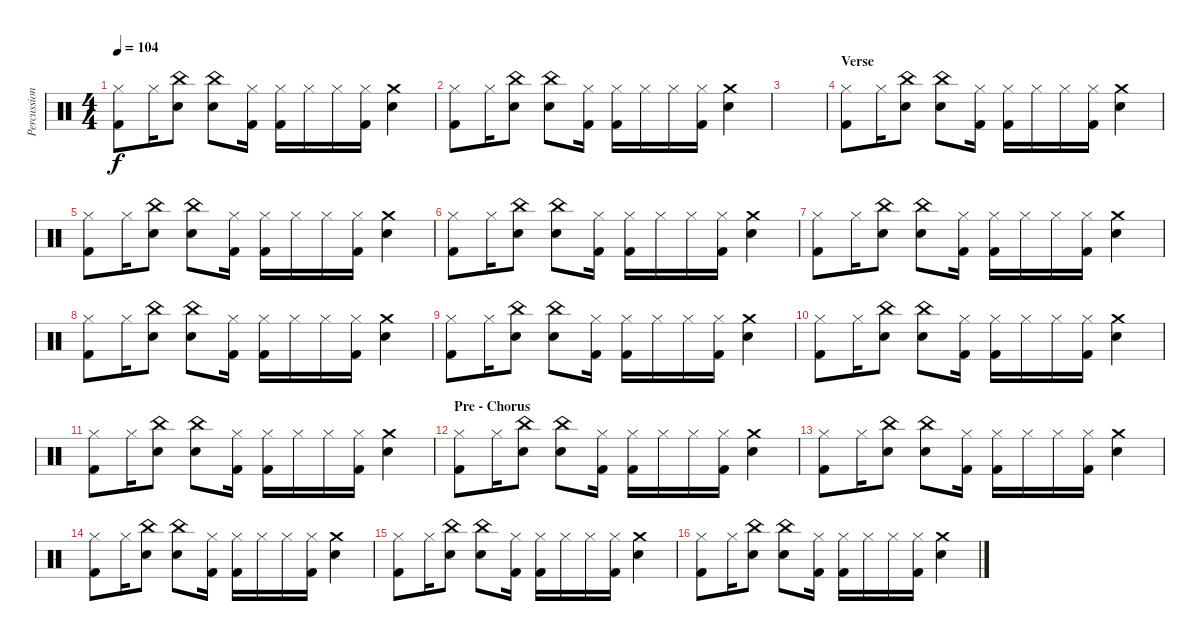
\track ("Percussion" "Percussion") {instrument percussion}
\staff {score}
\articulation defaults
\ts (4 4)
\tempo 104
\clef neutral
\ks c
("Hi-Hat (closed)" "Kick (hit) 2").8{dy f} "Hi-Hat (closed)".16 ("Snare (hit) 2" "China (hit)").8 ("Snare (hit) 2" "China (hit)").8 ("Hi-Hat (closed)" "Kick (hit) 2").16 ("Hi-Hat (closed)" "Kick (hit) 2").16 "Hi-Hat (closed)".16 "Hi-Hat (closed)".16 ("Hi-Hat (closed)" "Kick (hit) 2").16 ("Crash medium (hit)" "Snare (hit) 2").4 |
("Hi-Hat (closed)" "Kick (hit) 2").8 "Hi-Hat (closed)".16 ("Snare (hit) 2" "China (hit)").8 ("Snare (hit) 2" "China (hit)").8 ("Hi-Hat (closed)" "Kick (hit) 2").16 ("Hi-Hat (closed)" "Kick (hit) 2").16 "Hi-Hat (closed)".16 "Hi-Hat (closed)".16 ("Hi-Hat (closed)" "Kick (hit) 2").16 ("Crash medium (hit)" "Snare (hit) 2").4 |
|
\section ("" "Verse")
("Hi-Hat (closed)" "Kick (hit) 2").8 "Hi-Hat (closed)".16 ("Snare (hit) 2" "China (hit)").8 ("Snare (hit) 2" "China (hit)").8 ("Hi-Hat (closed)" "Kick (hit) 2").16 ("Hi-Hat (closed)" "Kick (hit) 2").16 "Hi-Hat (closed)".16 "Hi-Hat (closed)".16 ("Hi-Hat (closed)" "Kick (hit) 2").16 ("Crash medium (hit)" "Snare (hit) 2").4 |
("Hi-Hat (closed)" "Kick (hit) 2").8 "Hi-Hat (closed)".16 ("Snare (hit) 2" "China (hit)").8 ("Snare (hit) 2" "China (hit)").8 ("Hi-Hat (closed)" "Kick (hit) 2").16 ("Hi-Hat (closed)" "Kick (hit) 2").16 "Hi-Hat (closed)".16 "Hi-Hat (closed)".16 ("Hi-Hat (closed)" "Kick (hit) 2").16 ("Crash medium (hit)" "Snare (hit) 2").4 |
("Hi-Hat (closed)" "Kick (hit) 2").8 "Hi-Hat (closed)".16 ("Snare (hit) 2" "China (hit)").8 ("Snare (hit) 2" "China (hit)").8 ("Hi-Hat (closed)" "Kick (hit) 2").16 ("Hi-Hat (closed)" "Kick (hit) 2").16 "Hi-Hat (closed)".16 "Hi-Hat (closed)".16 ("Hi-Hat (closed)" "Kick (hit) 2").16 ("Crash medium (hit)" "Snare (hit) 2").4 |
("Hi-Hat (closed)" "Kick (hit) 2").8 "Hi-Hat (closed)".16 ("Snare (hit) 2" "China (hit)").8 ("Snare (hit) 2" "China (hit)").8 ("Hi-Hat (closed)" "Kick (hit) 2").16 ("Hi-Hat (closed)" "Kick (hit) 2").16 "Hi-Hat (closed)".16 "Hi-Hat (closed)".16 ("Hi-Hat (closed)" "Kick (hit) 2").16 ("Crash medium (hit)" "Snare (hit) 2").4 |
("Hi-Hat (closed)" "Kick (hit) 2").8 "Hi-Hat (closed)".16 ("Snare (hit) 2" "China (hit)").8 ("Snare (hit) 2" "China (hit)").8 ("Hi-Hat (closed)" "Kick (hit) 2").16 ("Hi-Hat (closed)" "Kick (hit) 2").16 "Hi-Hat (closed)".16 "Hi-Hat (closed)".16 ("Hi-Hat (closed)" "Kick (hit) 2").16 ("Crash medium (hit)" "Snare (hit) 2").4 |
("Hi-Hat (closed)" "Kick (hit) 2").8 "Hi-Hat (closed)".16 ("Snare (hit) 2" "China (hit)").8 ("Snare (hit) 2" "China (hit)").8 ("Hi-Hat (closed)" "Kick (hit) 2").16 ("Hi-Hat (closed)" "Kick (hit) 2").16 "Hi-Hat (closed)".16 "Hi-Hat (closed)".16 ("Hi-Hat (closed)" "Kick (hit) 2").16 ("Crash medium (hit)" "Snare (hit) 2").4 |
("Hi-Hat (closed)" "Kick (hit) 2").8 "Hi-Hat (closed)".16 ("Snare (hit) 2" "China (hit)").8 ("Snare (hit) 2" "China (hit)").8 ("Hi-Hat (closed)" "Kick (hit) 2").16 ("Hi-Hat (closed)" "Kick (hit) 2").16 "Hi-Hat (closed)".16 "Hi-Hat (closed)".16 ("Hi-Hat (closed)" "Kick (hit) 2").16 ("Crash medium (hit)" "Snare (hit) 2").4 |
("Hi-Hat (closed)" "Kick (hit) 2").8 "Hi-Hat (closed)".16 ("Snare (hit) 2" "China (hit)").8 ("Snare (hit) 2" "China (hit)").8 ("Hi-Hat (closed)" "Kick (hit) 2").16 ("Hi-Hat (closed)" "Kick (hit) 2").16 "Hi-Hat (closed)".16 "Hi-Hat (closed)".16 ("Hi-Hat (closed)" "Kick (hit) 2").16 ("Crash medium (hit)" "Snare (hit) 2").4 |
\section ("" "Pre - Chorus")
("Hi-Hat (closed)" "Kick (hit) 2").8 "Hi-Hat (closed)".16 ("Snare (hit) 2" "China (hit)").8 ("Snare (hit) 2" "China (hit)").8 ("Hi-Hat (closed)" "Kick (hit) 2").16 ("Hi-Hat (closed)" "Kick (hit) 2").16 "Hi-Hat (closed)".16 "Hi-Hat (closed)".16 ("Hi-Hat (closed)" "Kick (hit) 2").16 ("Crash medium (hit)" "Snare (hit) 2").4 |
("Hi-Hat (closed)" "Kick (hit) 2").8 "Hi-Hat (closed)".16 ("Snare (hit) 2" "China (hit)").8 ("Snare (hit) 2" "China (hit)").8 ("Hi-Hat (closed)" "Kick (hit) 2").16 ("Hi-Hat (closed)" "Kick (hit) 2").16 "Hi-Hat (closed)".16 "Hi-Hat (closed)".16 ("Hi-Hat (closed)" "Kick (hit) 2").16 ("Crash medium (hit)" "Snare (hit) 2").4 |
("Hi-Hat (closed)" "Kick (hit) 2").8 "Hi-Hat (closed)".16 ("Snare (hit) 2" "China (hit)").8 ("Snare (hit) 2" "China (hit)").8 ("Hi-Hat (closed)" "Kick (hit) 2").16 ("Hi-Hat (closed)" "Kick (hit) 2").16 "Hi-Hat (closed)".16 "Hi-Hat (closed)".16 ("Hi-Hat (closed)" "Kick (hit) 2").16 ("Crash medium (hit)" "Snare (hit) 2").4 |
("Hi-Hat (closed)" "Kick (hit) 2").8 "Hi-Hat (closed)".16 ("Snare (hit) 2" "China (hit)").8 ("Snare (hit) 2" "China (hit)").8 ("Hi-Hat (closed)" "Kick (hit) 2").16 ("Hi-Hat (closed)" "Kick (hit) 2").16 "Hi-Hat (closed)".16 "Hi-Hat (closed)".16 ("Hi-Hat (closed)" "Kick (hit) 2").16 ("Crash medium (hit)" "Snare (hit) 2").4 |
("Hi-Hat (closed)" "Kick (hit) 2").8 "Hi-Hat (closed)".16 ("Snare (hit) 2" "China (hit)").8 ("Snare (hit) 2" "China (hit)").8 ("Hi-Hat (closed)" "Kick (hit) 2").16 ("Hi-Hat (closed)" "Kick (hit) 2").16 "Hi-Hat (closed)".16 "Hi-Hat (closed)".16 ("Hi-Hat (closed)" "Kick (hit) 2").16 ("Crash medium (hit)" "Snare (hit) 2").4
